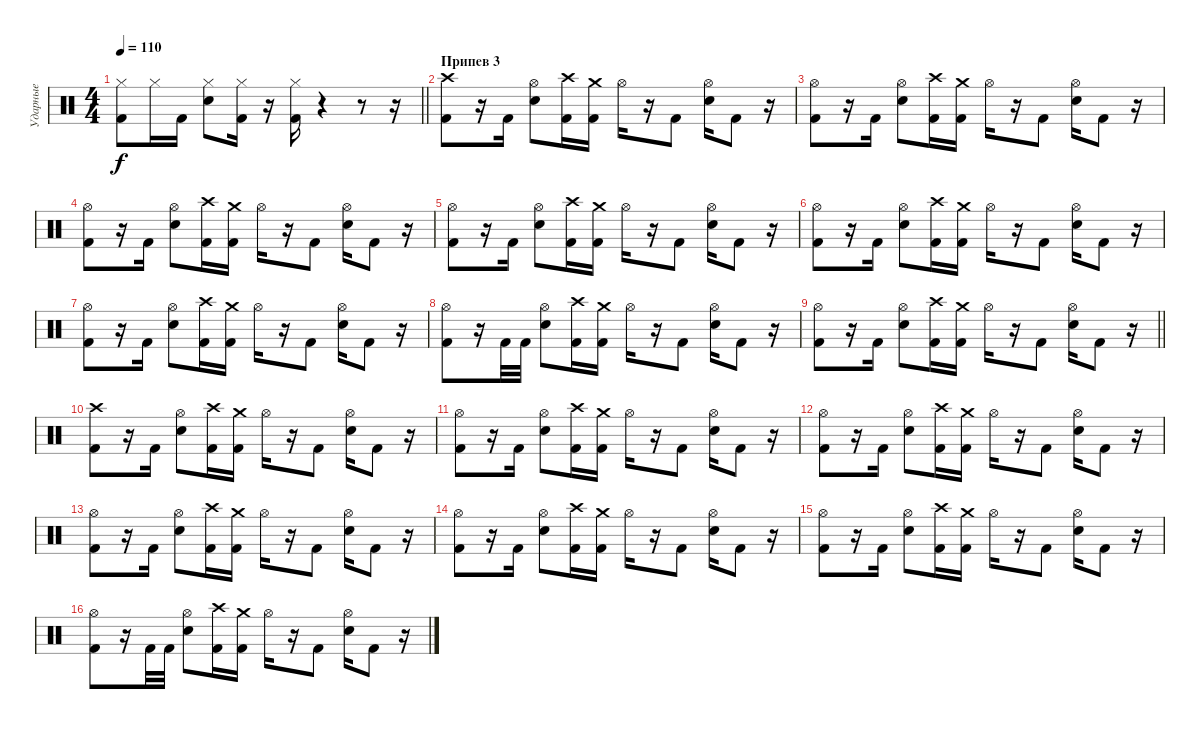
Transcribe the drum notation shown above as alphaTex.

\track ("Ударные" "Ударные") {instrument percussion}
\staff {score}
\articulation defaults
\ts (4 4)
\tempo 110
\clef neutral
\barLineRight lightlight
\ks c
("Hi-Hat (closed)" "Kick (hit) 2").8{dy f} "Hi-Hat (closed)".16 "Kick (hit) 2".16 ("Hi-Hat (closed)" "Snare (hit) 2").8 ("Hi-Hat (closed)" "Kick (hit) 2").16 r.16 ("Hi-Hat (closed)" "Kick (hit) 2").16 r.4 r.8 r.16 |
\section ("" "Припев 3")
("Crash high (hit)" "Kick (hit) 2").8 r.16 "Kick (hit) 2".16 ("Hi-Hat (open)" "Snare (hit) 2").8 ("Crash high (hit)" "Kick (hit) 2").16 ("Crash medium (hit)" "Kick (hit) 2").16 "Hi-Hat (open)".16 r.16 "Kick (hit) 2".8 ("Hi-Hat (open)" "Snare (hit) 2").16 "Kick (hit) 2".8 r.16 |
("Hi-Hat (open)" "Kick (hit) 2").8 r.16 "Kick (hit) 2".16 ("Hi-Hat (open)" "Snare (hit) 2").8 ("Crash high (hit)" "Kick (hit) 2").16 ("Crash medium (hit)" "Kick (hit) 2").16 "Hi-Hat (open)".16 r.16 "Kick (hit) 2".8 ("Hi-Hat (open)" "Snare (hit) 2").16 "Kick (hit) 2".8 r.16 |
("Hi-Hat (open)" "Kick (hit) 2").8 r.16 "Kick (hit) 2".16 ("Hi-Hat (open)" "Snare (hit) 2").8 ("Crash high (hit)" "Kick (hit) 2").16 ("Crash medium (hit)" "Kick (hit) 2").16 "Hi-Hat (open)".16 r.16 "Kick (hit) 2".8 ("Hi-Hat (open)" "Snare (hit) 2").16 "Kick (hit) 2".8 r.16 |
("Hi-Hat (open)" "Kick (hit) 2").8 r.16 "Kick (hit) 2".16 ("Hi-Hat (open)" "Snare (hit) 2").8 ("Crash high (hit)" "Kick (hit) 2").16 ("Crash medium (hit)" "Kick (hit) 2").16 "Hi-Hat (open)".16 r.16 "Kick (hit) 2".8 ("Hi-Hat (open)" "Snare (hit) 2").16 "Kick (hit) 2".8 r.16 |
("Hi-Hat (open)" "Kick (hit) 2").8 r.16 "Kick (hit) 2".16 ("Hi-Hat (open)" "Snare (hit) 2").8 ("Crash high (hit)" "Kick (hit) 2").16 ("Crash medium (hit)" "Kick (hit) 2").16 "Hi-Hat (open)".16 r.16 "Kick (hit) 2".8 ("Hi-Hat (open)" "Snare (hit) 2").16 "Kick (hit) 2".8 r.16 |
("Hi-Hat (open)" "Kick (hit) 2").8 r.16 "Kick (hit) 2".16 ("Hi-Hat (open)" "Snare (hit) 2").8 ("Crash high (hit)" "Kick (hit) 2").16 ("Crash medium (hit)" "Kick (hit) 2").16 "Hi-Hat (open)".16 r.16 "Kick (hit) 2".8 ("Hi-Hat (open)" "Snare (hit) 2").16 "Kick (hit) 2".8 r.16 |
("Hi-Hat (open)" "Kick (hit) 2").8 r.16 "Kick (hit) 2".32 "Kick (hit) 2".32 ("Hi-Hat (open)" "Snare (hit) 2").8 ("Crash high (hit)" "Kick (hit) 2").16 ("Crash medium (hit)" "Kick (hit) 2").16 "Hi-Hat (open)".16 r.16 "Kick (hit) 2".8 ("Hi-Hat (open)" "Snare (hit) 2").16 "Kick (hit) 2".8 r.16 |
\barLineRight lightlight
("Hi-Hat (open)" "Kick (hit) 2").8 r.16 "Kick (hit) 2".16 ("Hi-Hat (open)" "Snare (hit) 2").8 ("Crash high (hit)" "Kick (hit) 2").16 ("Crash medium (hit)" "Kick (hit) 2").16 "Hi-Hat (open)".16 r.16 "Kick (hit) 2".8 ("Hi-Hat (open)" "Snare (hit) 2").16 "Kick (hit) 2".8 r.16 |
("Crash high (hit)" "Kick (hit) 2").8 r.16 "Kick (hit) 2".16 ("Hi-Hat (open)" "Snare (hit) 2").8 ("Crash high (hit)" "Kick (hit) 2").16 ("Crash medium (hit)" "Kick (hit) 2").16 "Hi-Hat (open)".16 r.16 "Kick (hit) 2".8 ("Hi-Hat (open)" "Snare (hit) 2").16 "Kick (hit) 2".8 r.16 |
("Hi-Hat (open)" "Kick (hit) 2").8 r.16 "Kick (hit) 2".16 ("Hi-Hat (open)" "Snare (hit) 2").8 ("Crash high (hit)" "Kick (hit) 2").16 ("Crash medium (hit)" "Kick (hit) 2").16 "Hi-Hat (open)".16 r.16 "Kick (hit) 2".8 ("Hi-Hat (open)" "Snare (hit) 2").16 "Kick (hit) 2".8 r.16 |
("Hi-Hat (open)" "Kick (hit) 2").8 r.16 "Kick (hit) 2".16 ("Hi-Hat (open)" "Snare (hit) 2").8 ("Crash high (hit)" "Kick (hit) 2").16 ("Crash medium (hit)" "Kick (hit) 2").16 "Hi-Hat (open)".16 r.16 "Kick (hit) 2".8 ("Hi-Hat (open)" "Snare (hit) 2").16 "Kick (hit) 2".8 r.16 |
("Hi-Hat (open)" "Kick (hit) 2").8 r.16 "Kick (hit) 2".16 ("Hi-Hat (open)" "Snare (hit) 2").8 ("Crash high (hit)" "Kick (hit) 2").16 ("Crash medium (hit)" "Kick (hit) 2").16 "Hi-Hat (open)".16 r.16 "Kick (hit) 2".8 ("Hi-Hat (open)" "Snare (hit) 2").16 "Kick (hit) 2".8 r.16 |
("Hi-Hat (open)" "Kick (hit) 2").8 r.16 "Kick (hit) 2".16 ("Hi-Hat (open)" "Snare (hit) 2").8 ("Crash high (hit)" "Kick (hit) 2").16 ("Crash medium (hit)" "Kick (hit) 2").16 "Hi-Hat (open)".16 r.16 "Kick (hit) 2".8 ("Hi-Hat (open)" "Snare (hit) 2").16 "Kick (hit) 2".8 r.16 |
("Hi-Hat (open)" "Kick (hit) 2").8 r.16 "Kick (hit) 2".16 ("Hi-Hat (open)" "Snare (hit) 2").8 ("Crash high (hit)" "Kick (hit) 2").16 ("Crash medium (hit)" "Kick (hit) 2").16 "Hi-Hat (open)".16 r.16 "Kick (hit) 2".8 ("Hi-Hat (open)" "Snare (hit) 2").16 "Kick (hit) 2".8 r.16 |
("Hi-Hat (open)" "Kick (hit) 2").8 r.16 "Kick (hit) 2".32 "Kick (hit) 2".32 ("Hi-Hat (open)" "Snare (hit) 2").8 ("Crash high (hit)" "Kick (hit) 2").16 ("Crash medium (hit)" "Kick (hit) 2").16 "Hi-Hat (open)".16 r.16 "Kick (hit) 2".8 ("Hi-Hat (open)" "Snare (hit) 2").16 "Kick (hit) 2".8 r.16
